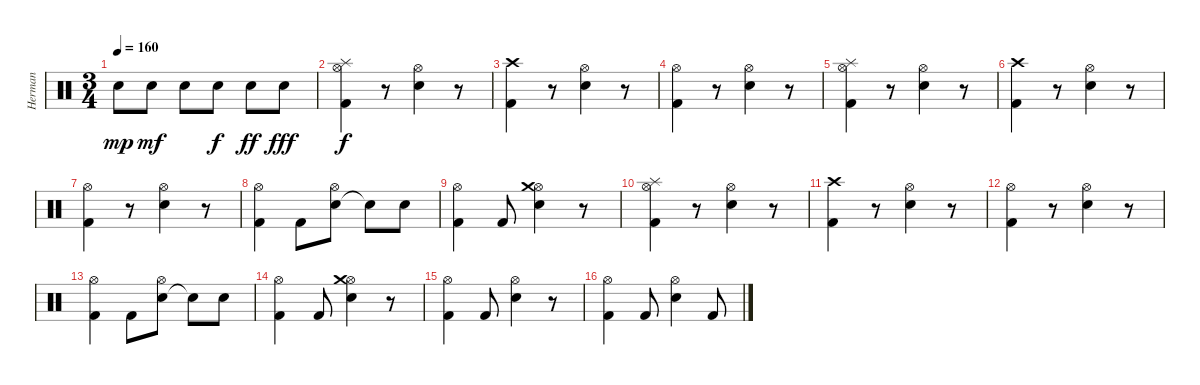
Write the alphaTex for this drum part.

\track ("Herman" "Herman") {instrument percussion}
\staff {score}
\articulation defaults
\ts (3 4)
\tempo 160
\clef neutral
\ks c "Electric Snare (hit)".8{dy mp} "Electric Snare (hit)".8{dy mf} "Electric Snare (hit)".8 "Electric Snare (hit)".8{dy f} "Electric Snare (hit)".8{dy ff} "Electric Snare (hit)".8{dy fff}
|
("Kick (hit) 2" "Hi-Hat (open)" "Splash (hit)").4{dy f} r.8 ("Electric Snare (hit)" "Hi-Hat (open)").4 r.8 |
("Kick (hit) 2" "Crash high (hit)").4 r.8 ("Electric Snare (hit)" "Hi-Hat (open)").4 r.8 |
("Kick (hit) 2" "Hi-Hat (open)").4 r.8 ("Electric Snare (hit)" "Hi-Hat (open)").4 r.8 |
("Kick (hit) 2" "Hi-Hat (open)" "Splash (hit)").4 r.8 ("Electric Snare (hit)" "Hi-Hat (open)").4 r.8 |
("Kick (hit) 2" "Crash high (hit)").4 r.8 ("Electric Snare (hit)" "Hi-Hat (open)").4 r.8 |
("Kick (hit) 2" "Hi-Hat (open)").4 r.8 ("Electric Snare (hit)" "Hi-Hat (open)").4 r.8 |
("Kick (hit) 2" "Hi-Hat (open)").4 "Kick (hit) 2".8 ("Electric Snare (hit)" "Hi-Hat (open)").8 "Snare (hit)"{t}.8 "Electric Snare (hit)".8 |
("Kick (hit) 2" "Hi-Hat (open)").4 "Kick (hit) 2".8 ("Electric Snare (hit)" "Hi-Hat (open)" "Crash medium (hit)").4 r.8 |
("Kick (hit) 2" "Hi-Hat (open)" "Splash (hit)").4 r.8 ("Electric Snare (hit)" "Hi-Hat (open)").4 r.8 |
("Kick (hit) 2" "Crash high (hit)").4 r.8 ("Electric Snare (hit)" "Hi-Hat (open)").4 r.8 |
("Kick (hit) 2" "Hi-Hat (open)").4 r.8 ("Electric Snare (hit)" "Hi-Hat (open)").4 r.8 |
("Kick (hit) 2" "Hi-Hat (open)").4 "Kick (hit) 2".8 ("Electric Snare (hit)" "Hi-Hat (open)").8 "Snare (hit)"{t}.8 "Electric Snare (hit)".8 |
("Kick (hit) 2" "Hi-Hat (open)").4 "Kick (hit) 2".8 ("Electric Snare (hit)" "Hi-Hat (open)" "Crash medium (hit)").4 r.8 |
("Kick (hit) 2" "Hi-Hat (open)").4 "Kick (hit) 2".8 ("Electric Snare (hit)" "Hi-Hat (open)").4 r.8 |
("Kick (hit) 2" "Hi-Hat (open)").4 "Kick (hit) 2".8 ("Electric Snare (hit)" "Hi-Hat (open)").4 "Kick (hit) 2".8
